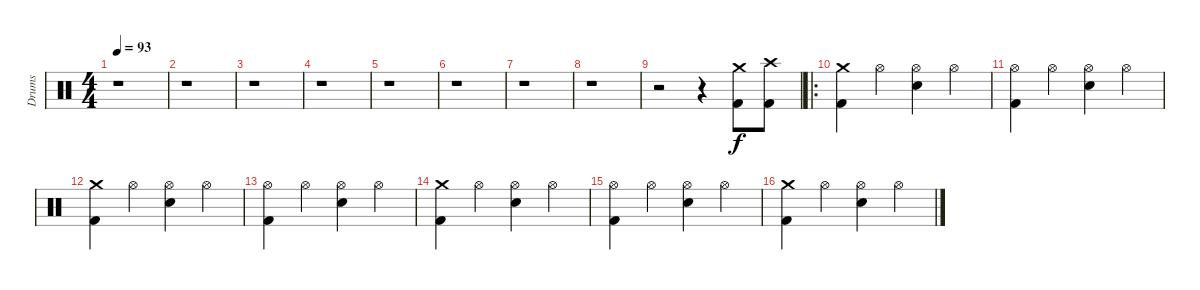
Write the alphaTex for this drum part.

\track ("Drums" "Drums") {instrument percussion}
\staff {score}
\articulation defaults
\ts (4 4)
\tempo 93
\clef neutral
\ks c
r.1{dy f} |
r.1 |
r.1 |
r.1 |
r.1 |
r.1 |
r.1 |
r.1 |
r.2 r.4 ("Crash medium (hit)" "Kick (hit) 2").8 ("Crash high (hit)" "Kick (hit) 2").8 |
\ro
("Crash medium (hit)" "Kick (hit) 2").4 "Hi-Hat (open)".4 ("Hi-Hat (open)" "Electric Snare (hit)").4 "Hi-Hat (open)".4 |
("Hi-Hat (open)" "Kick (hit) 2").4 "Hi-Hat (open)".4 ("Hi-Hat (open)" "Electric Snare (hit)").4 "Hi-Hat (open)".4 |
("Crash medium (hit)" "Kick (hit) 2").4 "Hi-Hat (open)".4 ("Hi-Hat (open)" "Electric Snare (hit)").4 "Hi-Hat (open)".4 |
("Hi-Hat (open)" "Kick (hit) 2").4 "Hi-Hat (open)".4 ("Hi-Hat (open)" "Electric Snare (hit)").4 "Hi-Hat (open)".4 |
("Crash medium (hit)" "Kick (hit) 2").4 "Hi-Hat (open)".4 ("Hi-Hat (open)" "Electric Snare (hit)").4 "Hi-Hat (open)".4 |
("Hi-Hat (open)" "Kick (hit) 2").4 "Hi-Hat (open)".4 ("Hi-Hat (open)" "Electric Snare (hit)").4 "Hi-Hat (open)".4 |
("Crash medium (hit)" "Kick (hit) 2").4 "Hi-Hat (open)".4 ("Hi-Hat (open)" "Electric Snare (hit)").4 "Hi-Hat (open)".4
